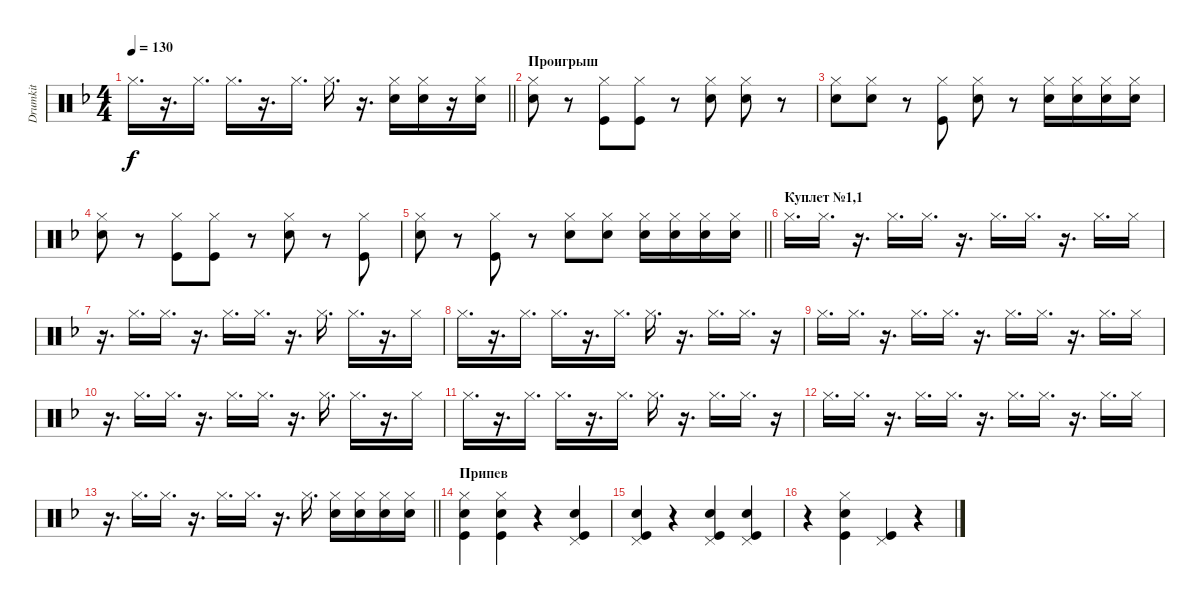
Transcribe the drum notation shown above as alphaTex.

\track ("Drumkit" "Drumkit") {instrument percussion}
\staff {score}
\articulation defaults
\ts (4 4)
\tempo 130
\clef neutral
\barLineRight lightlight
\ks f "Hi-Hat (closed)".16{d dy f}
r.16{d} "Hi-Hat (closed)".16{d} "Hi-Hat (closed)".16{d} r.16{d} "Hi-Hat (closed)".16{d} "Hi-Hat (closed)".16{d} r.16{d} ("Snare (hit) 2" "Hi-Hat (closed)").16 ("Snare (hit) 2" "Hi-Hat (closed)").16 r.16 ("Snare (hit) 2" "Hi-Hat (closed)").16 |
\section ("" "Проигрыш")
("Hi-Hat (closed)" "Snare (hit) 2").8 r.8 ("Hi-Hat (closed)" "Kick (hit)").8 ("Hi-Hat (closed)" "Kick (hit)").8 r.8 ("Hi-Hat (closed)" "Snare (hit) 2").8 ("Hi-Hat (closed)" "Snare (hit) 2").8 r.8 |
("Hi-Hat (closed)" "Snare (hit) 2").8 ("Hi-Hat (closed)" "Snare (hit) 2").8 r.8 ("Hi-Hat (closed)" "Kick (hit)").8 ("Hi-Hat (closed)" "Snare (hit) 2").8 r.8 ("Snare (hit) 2" "Hi-Hat (closed)").16 ("Snare (hit) 2" "Hi-Hat (closed)").16 ("Snare (hit) 2" "Hi-Hat (closed)").16 ("Snare (hit) 2" "Hi-Hat (closed)").16 |
("Hi-Hat (closed)" "Snare (hit) 2").8 r.8 ("Hi-Hat (closed)" "Kick (hit)").8 ("Hi-Hat (closed)" "Kick (hit)").8 r.8 ("Hi-Hat (closed)" "Snare (hit) 2").8 r.8 ("Hi-Hat (closed)" "Kick (hit)").8 |
\barLineRight lightlight
("Hi-Hat (closed)" "Snare (hit) 2").8 r.8 ("Hi-Hat (closed)" "Kick (hit)").8 r.8 ("Hi-Hat (closed)" "Snare (hit) 2").8 ("Hi-Hat (closed)" "Snare (hit) 2").8 ("Hi-Hat (closed)" "Snare (hit) 2").16 ("Hi-Hat (closed)" "Snare (hit) 2").16 ("Hi-Hat (closed)" "Snare (hit) 2").16 ("Hi-Hat (closed)" "Snare (hit) 2").16 |
\section ("" "Куплет №1,1")
"Hi-Hat (closed)".16{d} "Hi-Hat (closed)".16{d} r.16{d} "Hi-Hat (closed)".16{d} "Hi-Hat (closed)".16{d} r.16{d} "Hi-Hat (closed)".16{d} "Hi-Hat (closed)".16{d} r.16{d} "Hi-Hat (closed)".16{d} "Hi-Hat (closed)".16 |
r.16{d} "Hi-Hat (closed)".16{d} "Hi-Hat (closed)".16{d} r.16{d} "Hi-Hat (closed)".16{d} "Hi-Hat (closed)".16{d} r.16{d} "Hi-Hat (closed)".16{d} "Hi-Hat (closed)".16{d} r.16{d} "Hi-Hat (closed)".16 |
"Hi-Hat (closed)".16{d} r.16{d} "Hi-Hat (closed)".16{d} "Hi-Hat (closed)".16{d} r.16{d} "Hi-Hat (closed)".16{d} "Hi-Hat (closed)".16{d} r.16{d} "Hi-Hat (closed)".16{d} "Hi-Hat (closed)".16{d} r.16 |
"Hi-Hat (closed)".16{d} "Hi-Hat (closed)".16{d} r.16{d} "Hi-Hat (closed)".16{d} "Hi-Hat (closed)".16{d} r.16{d} "Hi-Hat (closed)".16{d} "Hi-Hat (closed)".16{d} r.16{d} "Hi-Hat (closed)".16{d} "Hi-Hat (closed)".16 |
r.16{d} "Hi-Hat (closed)".16{d} "Hi-Hat (closed)".16{d} r.16{d} "Hi-Hat (closed)".16{d} "Hi-Hat (closed)".16{d} r.16{d} "Hi-Hat (closed)".16{d} "Hi-Hat (closed)".16{d} r.16{d} "Hi-Hat (closed)".16 |
"Hi-Hat (closed)".16{d} r.16{d} "Hi-Hat (closed)".16{d} "Hi-Hat (closed)".16{d} r.16{d} "Hi-Hat (closed)".16{d} "Hi-Hat (closed)".16{d} r.16{d} "Hi-Hat (closed)".16{d} "Hi-Hat (closed)".16{d} r.16 |
"Hi-Hat (closed)".16{d} "Hi-Hat (closed)".16{d} r.16{d} "Hi-Hat (closed)".16{d} "Hi-Hat (closed)".16{d} r.16{d} "Hi-Hat (closed)".16{d} "Hi-Hat (closed)".16{d} r.16{d} "Hi-Hat (closed)".16{d} "Hi-Hat (closed)".16 |
\barLineRight lightlight
r.16{d} "Hi-Hat (closed)".16{d} "Hi-Hat (closed)".16{d} r.16{d} "Hi-Hat (closed)".16{d} "Hi-Hat (closed)".16{d} r.16{d} "Hi-Hat (closed)".16{d} ("Snare (hit) 2" "Hi-Hat (closed)").16 ("Snare (hit) 2" "Hi-Hat (closed)").16 ("Snare (hit) 2" "Hi-Hat (closed)").16 ("Snare (hit) 2" "Hi-Hat (closed)").16 |
\section ("" "Припев")
("Kick (hit)" "Snare (hit) 2" "Hi-Hat (closed)").4 ("Kick (hit)" "Snare (hit) 2" "Hi-Hat (closed)").4 r.4 ("Kick (hit)" "Snare (hit) 2" "Pedal Hi-Hat (hit)").4 |
("Kick (hit)" "Snare (hit) 2" "Pedal Hi-Hat (hit)").4 r.4 ("Kick (hit)" "Snare (hit) 2" "Pedal Hi-Hat (hit)").4 ("Kick (hit)" "Snare (hit) 2" "Pedal Hi-Hat (hit)").4 |
r.4 ("Kick (hit)" "Snare (hit) 2" "Hi-Hat (closed)").4 ("Kick (hit)" "Pedal Hi-Hat (hit)").4 r.4
